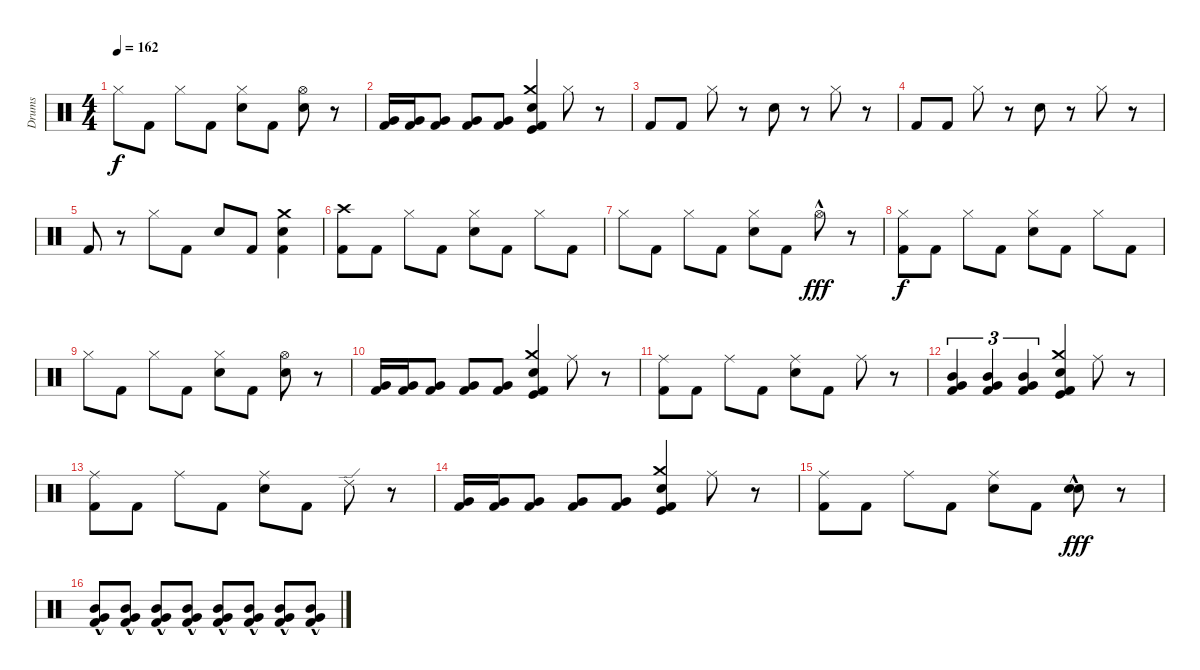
\track ("Drums" "Drums") {instrument percussion}
\staff {score}
\articulation defaults
\ts (4 4)
\tempo 162
\clef neutral
\ks c "Hi-Hat (closed)".8{dy f} "Kick (hit) 2".8 "Hi-Hat (closed)".8 "Kick (hit) 2".8
("Hi-Hat (closed)" "Electric Snare (hit)").8 "Kick (hit) 2".8 ("Hi-Hat (open)" "Electric Snare (hit)").8 r.8 |
("Very Low Tom (hit)" "Kick (hit) 2").16 ("Very Low Tom (hit)" "Kick (hit) 2").16 ("Very Low Tom (hit)" "Kick (hit) 2").8 ("Very Low Tom (hit)" "Kick (hit) 2").8 ("Very Low Tom (hit)" "Kick (hit) 2").8 ("Crash medium (hit)" "Electric Snare (hit)" "Kick (hit)" "Kick (hit) 2").4 "Hi-Hat (closed)".8 r.8 |
"Kick (hit) 2".8 "Kick (hit) 2".8 "Hi-Hat (closed)".8 r.8 "Electric Snare (hit)".8 r.8 "Hi-Hat (closed)".8 r.8 |
"Kick (hit) 2".8 "Kick (hit) 2".8 "Hi-Hat (closed)".8 r.8 "Electric Snare (hit)".8 r.8 "Hi-Hat (closed)".8 r.8 |
"Kick (hit) 2".8 r.8 "Hi-Hat (closed)".8 "Kick (hit) 2".8 "Electric Snare (hit)".8 "Kick (hit) 2".8 ("Crash medium (hit)" "Electric Snare (hit)" "Kick (hit) 2").4 |
("Crash high (hit)" "Kick (hit) 2").8 "Kick (hit) 2".8 "Hi-Hat (closed)".8 "Kick (hit) 2".8 ("Hi-Hat (closed)" "Electric Snare (hit)").8 "Kick (hit) 2".8 "Hi-Hat (closed)".8 "Kick (hit) 2".8 |
"Hi-Hat (closed)".8 "Kick (hit) 2".8 "Hi-Hat (closed)".8 "Kick (hit) 2".8 ("Hi-Hat (closed)" "Electric Snare (hit)").8 "Kick (hit) 2".8 "Hi-Hat (open)"{hac}.8{dy fff} r.8 |
("Hi-Hat (closed)" "Kick (hit) 2").8{dy f} "Kick (hit) 2".8 "Hi-Hat (closed)".8 "Kick (hit) 2".8 ("Hi-Hat (closed)" "Electric Snare (hit)").8 "Kick (hit) 2".8 "Hi-Hat (closed)".8 "Kick (hit) 2".8 |
"Hi-Hat (closed)".8 "Kick (hit) 2".8 "Hi-Hat (closed)".8 "Kick (hit) 2".8 ("Hi-Hat (closed)" "Electric Snare (hit)").8 "Kick (hit) 2".8 ("Hi-Hat (open)" "Electric Snare (hit)").8 r.8 |
("Very Low Tom (hit)" "Kick (hit) 2").16 ("Very Low Tom (hit)" "Kick (hit) 2").16 ("Very Low Tom (hit)" "Kick (hit) 2").8 ("Very Low Tom (hit)" "Kick (hit) 2").8 ("Very Low Tom (hit)" "Kick (hit) 2").8 ("Crash medium (hit)" "Electric Snare (hit)" "Kick (hit)" "Kick (hit) 2").4 "Ride (middle)".8 r.8 |
("Ride (middle)" "Kick (hit) 2").8 "Kick (hit) 2".8 "Ride (middle)".8 "Kick (hit) 2".8 ("Ride (middle)" "Electric Snare (hit)").8 "Kick (hit) 2".8 "Ride (middle)".8 r.8 |
("Mid Tom (hit)" "Very Low Tom (hit)" "Kick (hit) 2").4{tu (3 2)} ("Mid Tom (hit)" "Very Low Tom (hit)" "Kick (hit) 2").4{tu (3 2)} ("Mid Tom (hit)" "Very Low Tom (hit)" "Kick (hit) 2").4{tu (3 2)} ("Crash medium (hit)" "Electric Snare (hit)" "Kick (hit)" "Kick (hit) 2").4 "Ride (middle)".8 r.8 |
("Ride (middle)" "Kick (hit) 2").8 "Kick (hit) 2".8 "Ride (middle)".8 "Kick (hit) 2".8 ("Ride (middle)" "Electric Snare (hit)").8 "Kick (hit) 2".8 "Ride (edge) 2".8 r.8 |
("Very Low Tom (hit)" "Kick (hit) 2").16 ("Very Low Tom (hit)" "Kick (hit) 2").16 ("Very Low Tom (hit)" "Kick (hit) 2").8 ("Very Low Tom (hit)" "Kick (hit) 2").8 ("Very Low Tom (hit)" "Kick (hit) 2").8 ("Crash medium (hit)" "Electric Snare (hit)" "Kick (hit)" "Kick (hit) 2").4 "Ride (middle)".8 r.8 |
("Ride (middle)" "Kick (hit) 2").8 "Kick (hit) 2".8 "Ride (middle)".8 "Kick (hit) 2".8 ("Ride (middle)" "Electric Snare (hit)").8 "Kick (hit) 2".8 ("Electric Snare (hit)"{hac} "Electric Snare (hit)"{hac}).8{dy fff} r.8 |
("Mid Tom (hit)" "Very Low Tom (hit)"{hac} "Kick (hit) 2").8 ("Mid Tom (hit)" "Very Low Tom (hit)"{hac} "Kick (hit) 2").8 ("Mid Tom (hit)" "Very Low Tom (hit)"{hac} "Kick (hit) 2").8 ("Mid Tom (hit)" "Very Low Tom (hit)"{hac} "Kick (hit) 2").8 ("Mid Tom (hit)" "Very Low Tom (hit)"{hac} "Kick (hit) 2").8 ("Mid Tom (hit)" "Very Low Tom (hit)"{hac} "Kick (hit) 2").8 ("Mid Tom (hit)" "Very Low Tom (hit)"{hac} "Kick (hit) 2").8 ("Mid Tom (hit)" "Very Low Tom (hit)"{hac} "Kick (hit) 2").8
